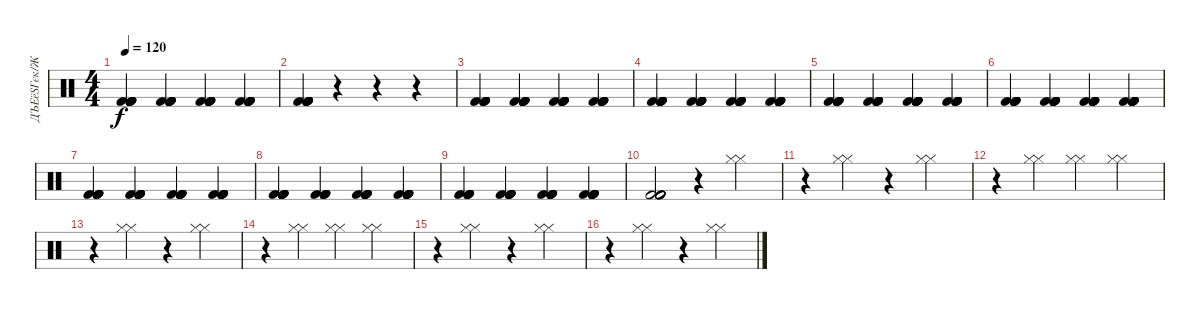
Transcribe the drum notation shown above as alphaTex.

\track ("ДЪЕёЅГєк/ЖК" "ДЪЕёЅГєк/Ж") {instrument percussion}
\staff {score}
\articulation defaults
\ts (4 4)
\tempo 120
\clef neutral
\ks c
("Kick (hit) 2" "Kick (hit) 2" "Kick (hit) 2" "Kick (hit) 2" "Kick (hit) 2" "Kick (hit) 2").4{dy f} ("Kick (hit) 2" "Kick (hit) 2" "Kick (hit) 2" "Kick (hit) 2" "Kick (hit) 2" "Kick (hit) 2").4 ("Kick (hit) 2" "Kick (hit) 2" "Kick (hit) 2" "Kick (hit) 2" "Kick (hit) 2" "Kick (hit) 2").4 ("Kick (hit) 2" "Kick (hit) 2" "Kick (hit) 2" "Kick (hit) 2" "Kick (hit) 2" "Kick (hit) 2").4 |
("Kick (hit) 2" "Kick (hit) 2" "Kick (hit) 2" "Kick (hit) 2" "Kick (hit) 2" "Kick (hit) 2").4 r.4 r.4 r.4 |
("Kick (hit) 2" "Kick (hit) 2" "Kick (hit) 2" "Kick (hit) 2" "Kick (hit) 2" "Kick (hit) 2").4 ("Kick (hit) 2" "Kick (hit) 2" "Kick (hit) 2" "Kick (hit) 2" "Kick (hit) 2" "Kick (hit) 2").4 ("Kick (hit) 2" "Kick (hit) 2" "Kick (hit) 2" "Kick (hit) 2" "Kick (hit) 2" "Kick (hit) 2").4 ("Kick (hit) 2" "Kick (hit) 2" "Kick (hit) 2" "Kick (hit) 2" "Kick (hit) 2" "Kick (hit) 2").4 |
("Kick (hit) 2" "Kick (hit) 2" "Kick (hit) 2" "Kick (hit) 2" "Kick (hit) 2" "Kick (hit) 2").4 ("Kick (hit) 2" "Kick (hit) 2" "Kick (hit) 2" "Kick (hit) 2" "Kick (hit) 2" "Kick (hit) 2").4 ("Kick (hit) 2" "Kick (hit) 2" "Kick (hit) 2" "Kick (hit) 2" "Kick (hit) 2" "Kick (hit) 2").4 ("Kick (hit) 2" "Kick (hit) 2" "Kick (hit) 2" "Kick (hit) 2" "Kick (hit) 2" "Kick (hit) 2").4 |
("Kick (hit) 2" "Kick (hit) 2" "Kick (hit) 2" "Kick (hit) 2" "Kick (hit) 2" "Kick (hit) 2").4 ("Kick (hit) 2" "Kick (hit) 2" "Kick (hit) 2" "Kick (hit) 2" "Kick (hit) 2" "Kick (hit) 2").4 ("Kick (hit) 2" "Kick (hit) 2" "Kick (hit) 2" "Kick (hit) 2" "Kick (hit) 2" "Kick (hit) 2").4 ("Kick (hit) 2" "Kick (hit) 2" "Kick (hit) 2" "Kick (hit) 2" "Kick (hit) 2" "Kick (hit) 2").4 |
("Kick (hit) 2" "Kick (hit) 2" "Kick (hit) 2" "Kick (hit) 2" "Kick (hit) 2" "Kick (hit) 2").4 ("Kick (hit) 2" "Kick (hit) 2" "Kick (hit) 2" "Kick (hit) 2" "Kick (hit) 2" "Kick (hit) 2").4 ("Kick (hit) 2" "Kick (hit) 2" "Kick (hit) 2" "Kick (hit) 2" "Kick (hit) 2" "Kick (hit) 2").4 ("Kick (hit) 2" "Kick (hit) 2" "Kick (hit) 2" "Kick (hit) 2" "Kick (hit) 2" "Kick (hit) 2").4 |
("Kick (hit) 2" "Kick (hit) 2" "Kick (hit) 2" "Kick (hit) 2" "Kick (hit) 2" "Kick (hit) 2").4 ("Kick (hit) 2" "Kick (hit) 2" "Kick (hit) 2" "Kick (hit) 2" "Kick (hit) 2" "Kick (hit) 2").4 ("Kick (hit) 2" "Kick (hit) 2" "Kick (hit) 2" "Kick (hit) 2" "Kick (hit) 2" "Kick (hit) 2").4 ("Kick (hit) 2" "Kick (hit) 2" "Kick (hit) 2" "Kick (hit) 2" "Kick (hit) 2" "Kick (hit) 2").4 |
("Kick (hit) 2" "Kick (hit) 2" "Kick (hit) 2" "Kick (hit) 2" "Kick (hit) 2" "Kick (hit) 2").4 ("Kick (hit) 2" "Kick (hit) 2" "Kick (hit) 2" "Kick (hit) 2" "Kick (hit) 2" "Kick (hit) 2").4 ("Kick (hit) 2" "Kick (hit) 2" "Kick (hit) 2" "Kick (hit) 2" "Kick (hit) 2" "Kick (hit) 2").4 ("Kick (hit) 2" "Kick (hit) 2" "Kick (hit) 2" "Kick (hit) 2" "Kick (hit) 2" "Kick (hit) 2").4 |
("Kick (hit) 2" "Kick (hit) 2" "Kick (hit) 2" "Kick (hit) 2" "Kick (hit) 2" "Kick (hit) 2").4 ("Kick (hit) 2" "Kick (hit) 2" "Kick (hit) 2" "Kick (hit) 2" "Kick (hit) 2" "Kick (hit) 2").4 ("Kick (hit) 2" "Kick (hit) 2" "Kick (hit) 2" "Kick (hit) 2" "Kick (hit) 2" "Kick (hit) 2").4 ("Kick (hit) 2" "Kick (hit) 2" "Kick (hit) 2" "Kick (hit) 2" "Kick (hit) 2" "Kick (hit) 2").4 |
("Kick (hit) 2" "Kick (hit) 2" "Kick (hit) 2" "Kick (hit) 2" "Kick (hit) 2" "Kick (hit) 2").2 r.4 ("Hi-Hat (closed)" "Hi-Hat (closed)").4 |
r.4 ("Hi-Hat (closed)" "Hi-Hat (closed)").4 r.4 ("Hi-Hat (closed)" "Hi-Hat (closed)").4 |
r.4 ("Hi-Hat (closed)" "Hi-Hat (closed)").4 ("Hi-Hat (closed)" "Hi-Hat (closed)").4 ("Hi-Hat (closed)" "Hi-Hat (closed)").4 |
r.4 ("Hi-Hat (closed)" "Hi-Hat (closed)").4 r.4 ("Hi-Hat (closed)" "Hi-Hat (closed)").4 |
r.4 ("Hi-Hat (closed)" "Hi-Hat (closed)").4 ("Hi-Hat (closed)" "Hi-Hat (closed)").4 ("Hi-Hat (closed)" "Hi-Hat (closed)").4 |
r.4 ("Hi-Hat (closed)" "Hi-Hat (closed)").4 r.4 ("Hi-Hat (closed)" "Hi-Hat (closed)").4 |
r.4 ("Hi-Hat (closed)" "Hi-Hat (closed)").4 r.4 ("Hi-Hat (closed)" "Hi-Hat (closed)").4
